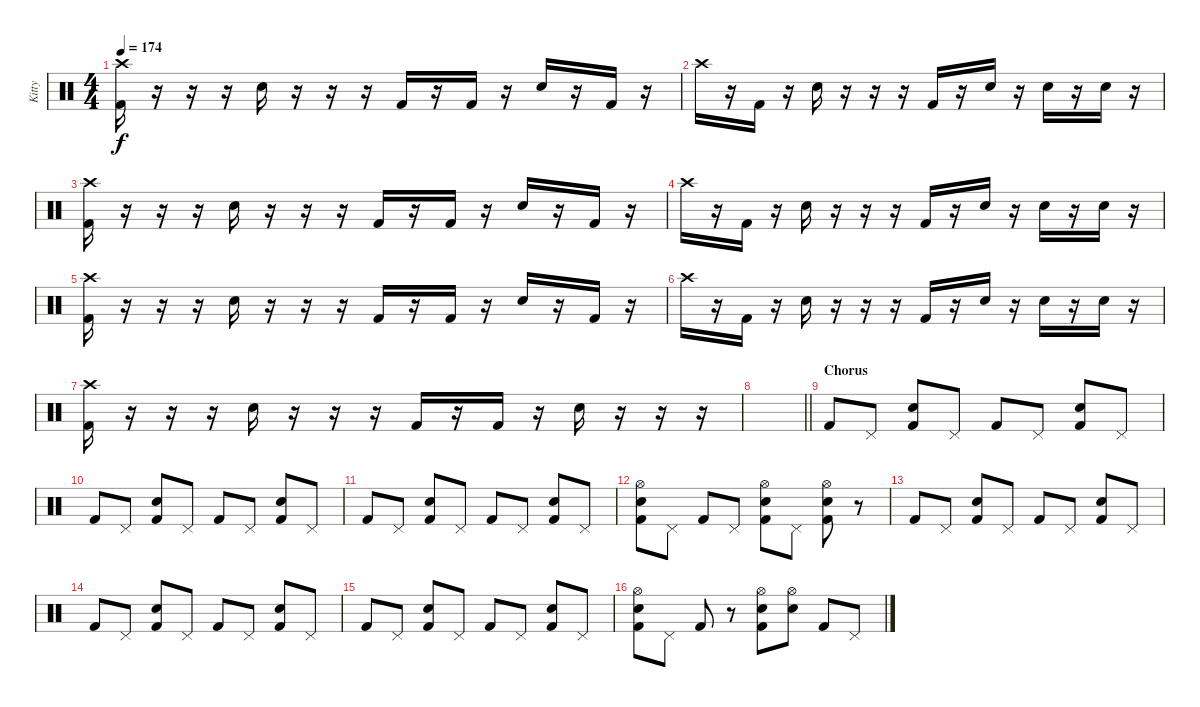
\track ("Kitty" "Kitty") {instrument percussion}
\staff {score}
\articulation defaults
\ts (4 4)
\tempo 174
\clef neutral
\ks c
("Crash high (hit)" "Kick (hit) 2").16{dy f} r.16 r.16 r.16 "Snare (hit) 2".16 r.16 r.16 r.16 "Kick (hit) 2".16 r.16 "Kick (hit) 2".16 r.16 "Snare (hit) 2".16 r.16 "Kick (hit) 2".16 r.16 |
"Crash high (hit)".16 r.16 "Kick (hit) 2".16 r.16 "Snare (hit) 2".16 r.16 r.16 r.16 "Kick (hit) 2".16 r.16 "Snare (hit) 2".16 r.16 "Snare (hit) 2".16 r.16 "Snare (hit) 2".16 r.16 |
("Crash high (hit)" "Kick (hit) 2").16 r.16 r.16 r.16 "Snare (hit) 2".16 r.16 r.16 r.16 "Kick (hit) 2".16 r.16 "Kick (hit) 2".16 r.16 "Snare (hit) 2".16 r.16 "Kick (hit) 2".16 r.16 |
"Crash high (hit)".16 r.16 "Kick (hit) 2".16 r.16 "Snare (hit) 2".16 r.16 r.16 r.16 "Kick (hit) 2".16 r.16 "Snare (hit) 2".16 r.16 "Snare (hit) 2".16 r.16 "Snare (hit) 2".16 r.16 |
("Crash high (hit)" "Kick (hit) 2").16 r.16 r.16 r.16 "Snare (hit) 2".16 r.16 r.16 r.16 "Kick (hit) 2".16 r.16 "Kick (hit) 2".16 r.16 "Snare (hit) 2".16 r.16 "Kick (hit) 2".16 r.16 |
"Crash high (hit)".16 r.16 "Kick (hit) 2".16 r.16 "Snare (hit) 2".16 r.16 r.16 r.16 "Kick (hit) 2".16 r.16 "Snare (hit) 2".16 r.16 "Snare (hit) 2".16 r.16 "Snare (hit) 2".16 r.16 |
("Crash high (hit)" "Kick (hit) 2").16 r.16 r.16 r.16 "Snare (hit) 2".16 r.16 r.16 r.16 "Kick (hit) 2".16 r.16 "Kick (hit) 2".16 r.16 "Snare (hit) 2".16 r.16 r.16 r.16 |
\barLineRight lightlight
|
\section ("" "Chorus")
"Kick (hit) 2".8 "Pedal Hi-Hat (hit)".8 ("Snare (hit) 2" "Kick (hit) 2").8 "Pedal Hi-Hat (hit)".8 "Kick (hit) 2".8 "Pedal Hi-Hat (hit)".8 ("Snare (hit) 2" "Kick (hit) 2").8 "Pedal Hi-Hat (hit)".8 |
"Kick (hit) 2".8 "Pedal Hi-Hat (hit)".8 ("Snare (hit) 2" "Kick (hit) 2").8 "Pedal Hi-Hat (hit)".8 "Kick (hit) 2".8 "Pedal Hi-Hat (hit)".8 ("Snare (hit) 2" "Kick (hit) 2").8 "Pedal Hi-Hat (hit)".8 |
"Kick (hit) 2".8 "Pedal Hi-Hat (hit)".8 ("Snare (hit) 2" "Kick (hit) 2").8 "Pedal Hi-Hat (hit)".8 "Kick (hit) 2".8 "Pedal Hi-Hat (hit)".8 ("Snare (hit) 2" "Kick (hit) 2").8 "Pedal Hi-Hat (hit)".8 |
("Hi-Hat (open)" "Snare (hit) 2" "Kick (hit) 2").8 "Pedal Hi-Hat (hit)".8 "Kick (hit) 2".8 "Pedal Hi-Hat (hit)".8 ("Hi-Hat (open)" "Snare (hit) 2" "Kick (hit) 2").8 "Pedal Hi-Hat (hit)".8 ("Hi-Hat (open)" "Snare (hit) 2" "Kick (hit) 2").8 r.8 |
"Kick (hit) 2".8 "Pedal Hi-Hat (hit)".8 ("Snare (hit) 2" "Kick (hit) 2").8 "Pedal Hi-Hat (hit)".8 "Kick (hit) 2".8 "Pedal Hi-Hat (hit)".8 ("Snare (hit) 2" "Kick (hit) 2").8 "Pedal Hi-Hat (hit)".8 |
"Kick (hit) 2".8 "Pedal Hi-Hat (hit)".8 ("Snare (hit) 2" "Kick (hit) 2").8 "Pedal Hi-Hat (hit)".8 "Kick (hit) 2".8 "Pedal Hi-Hat (hit)".8 ("Snare (hit) 2" "Kick (hit) 2").8 "Pedal Hi-Hat (hit)".8 |
"Kick (hit) 2".8 "Pedal Hi-Hat (hit)".8 ("Snare (hit) 2" "Kick (hit) 2").8 "Pedal Hi-Hat (hit)".8 "Kick (hit) 2".8 "Pedal Hi-Hat (hit)".8 ("Snare (hit) 2" "Kick (hit) 2").8 "Pedal Hi-Hat (hit)".8 |
("Hi-Hat (open)" "Snare (hit) 2" "Kick (hit) 2").8 "Pedal Hi-Hat (hit)".8 "Kick (hit) 2".8 r.8 ("Hi-Hat (open)" "Snare (hit) 2" "Kick (hit) 2").8 ("Hi-Hat (open)" "Snare (hit) 2").8 "Kick (hit) 2".8 "Pedal Hi-Hat (hit)".8
